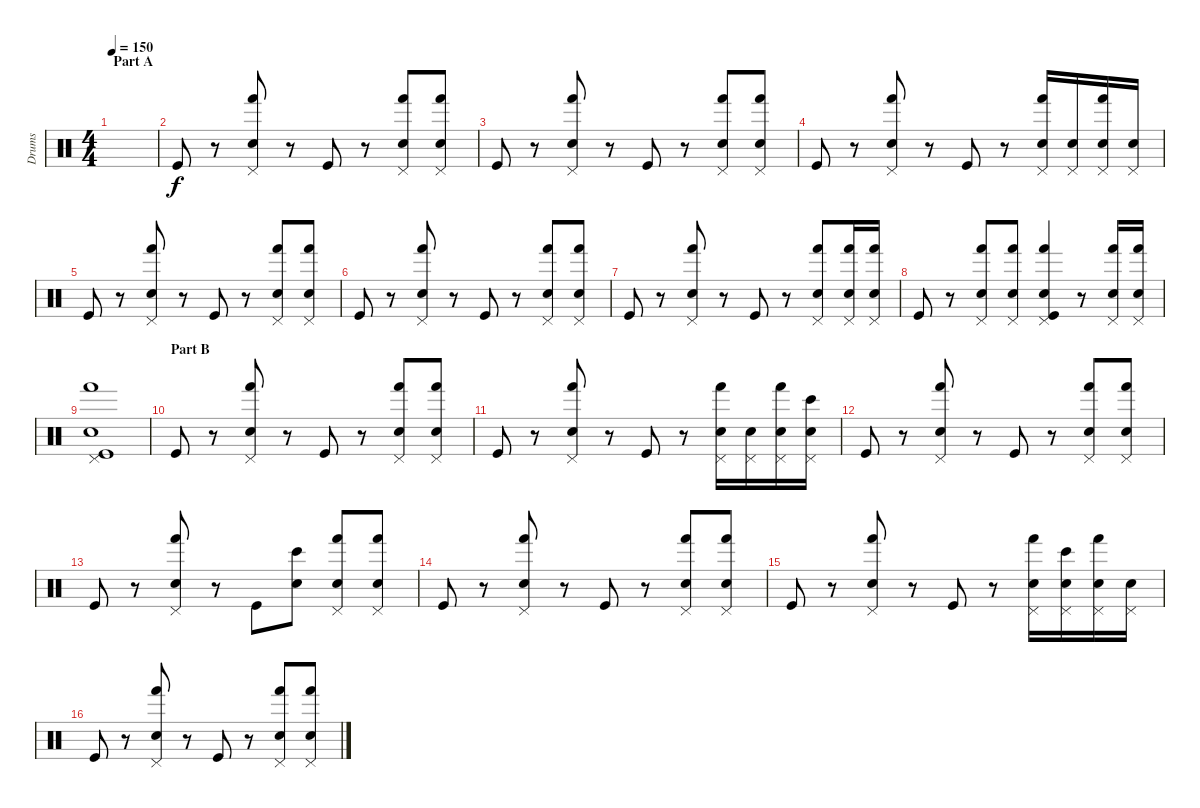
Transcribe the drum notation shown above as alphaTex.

\track ("Drums" "Drums") {instrument percussion}
\staff {score}
\articulation defaults
\ts (4 4)
\section ("" "Part A")
\tempo 150
\clef neutral
\ks c
|
"Kick (hit)".8 r.8 ("Pedal Hi-Hat (hit)" "Hand (hit)" "Electric Snare (hit)").8 r.8 "Kick (hit)".8 r.8 ("Pedal Hi-Hat (hit)" "Hand (hit)" "Electric Snare (hit)").8 ("Pedal Hi-Hat (hit)" "Hand (hit)" "Electric Snare (hit)").8 |
"Kick (hit)".8 r.8 ("Pedal Hi-Hat (hit)" "Hand (hit)" "Electric Snare (hit)").8 r.8 "Kick (hit)".8 r.8 ("Pedal Hi-Hat (hit)" "Hand (hit)" "Electric Snare (hit)").8 ("Pedal Hi-Hat (hit)" "Hand (hit)" "Electric Snare (hit)").8 |
"Kick (hit)".8 r.8 ("Pedal Hi-Hat (hit)" "Hand (hit)" "Electric Snare (hit)").8 r.8 "Kick (hit)".8 r.8 ("Pedal Hi-Hat (hit)" "Hand (hit)" "Electric Snare (hit)").16 ("Pedal Hi-Hat (hit)" "Electric Snare (hit)").16 ("Pedal Hi-Hat (hit)" "Hand (hit)" "Electric Snare (hit)").16 ("Pedal Hi-Hat (hit)" "Electric Snare (hit)").16 |
"Kick (hit)".8 r.8 ("Pedal Hi-Hat (hit)" "Hand (hit)" "Electric Snare (hit)").8 r.8 "Kick (hit)".8 r.8 ("Pedal Hi-Hat (hit)" "Hand (hit)" "Electric Snare (hit)").8 ("Pedal Hi-Hat (hit)" "Hand (hit)" "Electric Snare (hit)").8 |
"Kick (hit)".8 r.8 ("Pedal Hi-Hat (hit)" "Hand (hit)" "Electric Snare (hit)").8 r.8 "Kick (hit)".8 r.8 ("Pedal Hi-Hat (hit)" "Hand (hit)" "Electric Snare (hit)").8 ("Pedal Hi-Hat (hit)" "Hand (hit)" "Electric Snare (hit)").8 |
"Kick (hit)".8 r.8 ("Pedal Hi-Hat (hit)" "Hand (hit)" "Electric Snare (hit)").8 r.8 "Kick (hit)".8 r.8 ("Pedal Hi-Hat (hit)" "Hand (hit)" "Electric Snare (hit)").8 ("Pedal Hi-Hat (hit)" "Hand (hit)" "Electric Snare (hit)").16 ("Pedal Hi-Hat (hit)" "Hand (hit)" "Electric Snare (hit)").16 |
"Kick (hit)".8 r.8 ("Pedal Hi-Hat (hit)" "Hand (hit)" "Electric Snare (hit)").8 ("Pedal Hi-Hat (hit)" "Hand (hit)" "Electric Snare (hit)").8 ("Pedal Hi-Hat (hit)" "Hand (hit)" "Electric Snare (hit)" "Kick (hit)").4 r.8 ("Pedal Hi-Hat (hit)" "Hand (hit)" "Electric Snare (hit)").16 ("Pedal Hi-Hat (hit)" "Hand (hit)" "Electric Snare (hit)").16 |
("Pedal Hi-Hat (hit)" "Hand (hit)" "Electric Snare (hit)" "Kick (hit)").1 |
\section ("" "Part B")
"Kick (hit)".8 r.8 ("Pedal Hi-Hat (hit)" "Hand (hit)" "Electric Snare (hit)").8 r.8 "Kick (hit)".8 r.8 ("Pedal Hi-Hat (hit)" "Hand (hit)" "Electric Snare (hit)").8 ("Pedal Hi-Hat (hit)" "Hand (hit)" "Electric Snare (hit)").8 |
"Kick (hit)".8 r.8 ("Pedal Hi-Hat (hit)" "Hand (hit)" "Electric Snare (hit)").8 r.8 "Kick (hit)".8 r.8 ("Pedal Hi-Hat (hit)" "Hand (hit)" "Electric Snare (hit)").16 ("Pedal Hi-Hat (hit)" "Electric Snare (hit)").16 ("Pedal Hi-Hat (hit)" "Hand (hit)" "Electric Snare (hit)").16 ("Pedal Hi-Hat (hit)" "Bongo High (hit)" "Electric Snare (hit)").16 |
"Kick (hit)".8 r.8 ("Pedal Hi-Hat (hit)" "Hand (hit)" "Electric Snare (hit)").8 r.8 "Kick (hit)".8 r.8 ("Pedal Hi-Hat (hit)" "Hand (hit)" "Electric Snare (hit)").8 ("Pedal Hi-Hat (hit)" "Hand (hit)" "Electric Snare (hit)").8 |
"Kick (hit)".8 r.8 ("Pedal Hi-Hat (hit)" "Hand (hit)" "Electric Snare (hit)").8 r.8 "Kick (hit)".8 ("Bongo High (hit)" "Electric Snare (hit)").8 ("Pedal Hi-Hat (hit)" "Hand (hit)" "Electric Snare (hit)").8 ("Pedal Hi-Hat (hit)" "Hand (hit)" "Electric Snare (hit)").8 |
"Kick (hit)".8 r.8 ("Pedal Hi-Hat (hit)" "Hand (hit)" "Electric Snare (hit)").8 r.8 "Kick (hit)".8 r.8 ("Pedal Hi-Hat (hit)" "Hand (hit)" "Electric Snare (hit)").8 ("Pedal Hi-Hat (hit)" "Hand (hit)" "Electric Snare (hit)").8 |
"Kick (hit)".8 r.8 ("Pedal Hi-Hat (hit)" "Hand (hit)" "Electric Snare (hit)").8 r.8 "Kick (hit)".8 r.8 ("Pedal Hi-Hat (hit)" "Hand (hit)" "Electric Snare (hit)").16 ("Pedal Hi-Hat (hit)" "Bongo High (hit)" "Electric Snare (hit)").16 ("Pedal Hi-Hat (hit)" "Hand (hit)" "Electric Snare (hit)").16 ("Pedal Hi-Hat (hit)" "Electric Snare (hit)").16 |
"Kick (hit)".8 r.8 ("Pedal Hi-Hat (hit)" "Hand (hit)" "Electric Snare (hit)").8 r.8 "Kick (hit)".8 r.8 ("Pedal Hi-Hat (hit)" "Hand (hit)" "Electric Snare (hit)").8 ("Pedal Hi-Hat (hit)" "Hand (hit)" "Electric Snare (hit)").8
